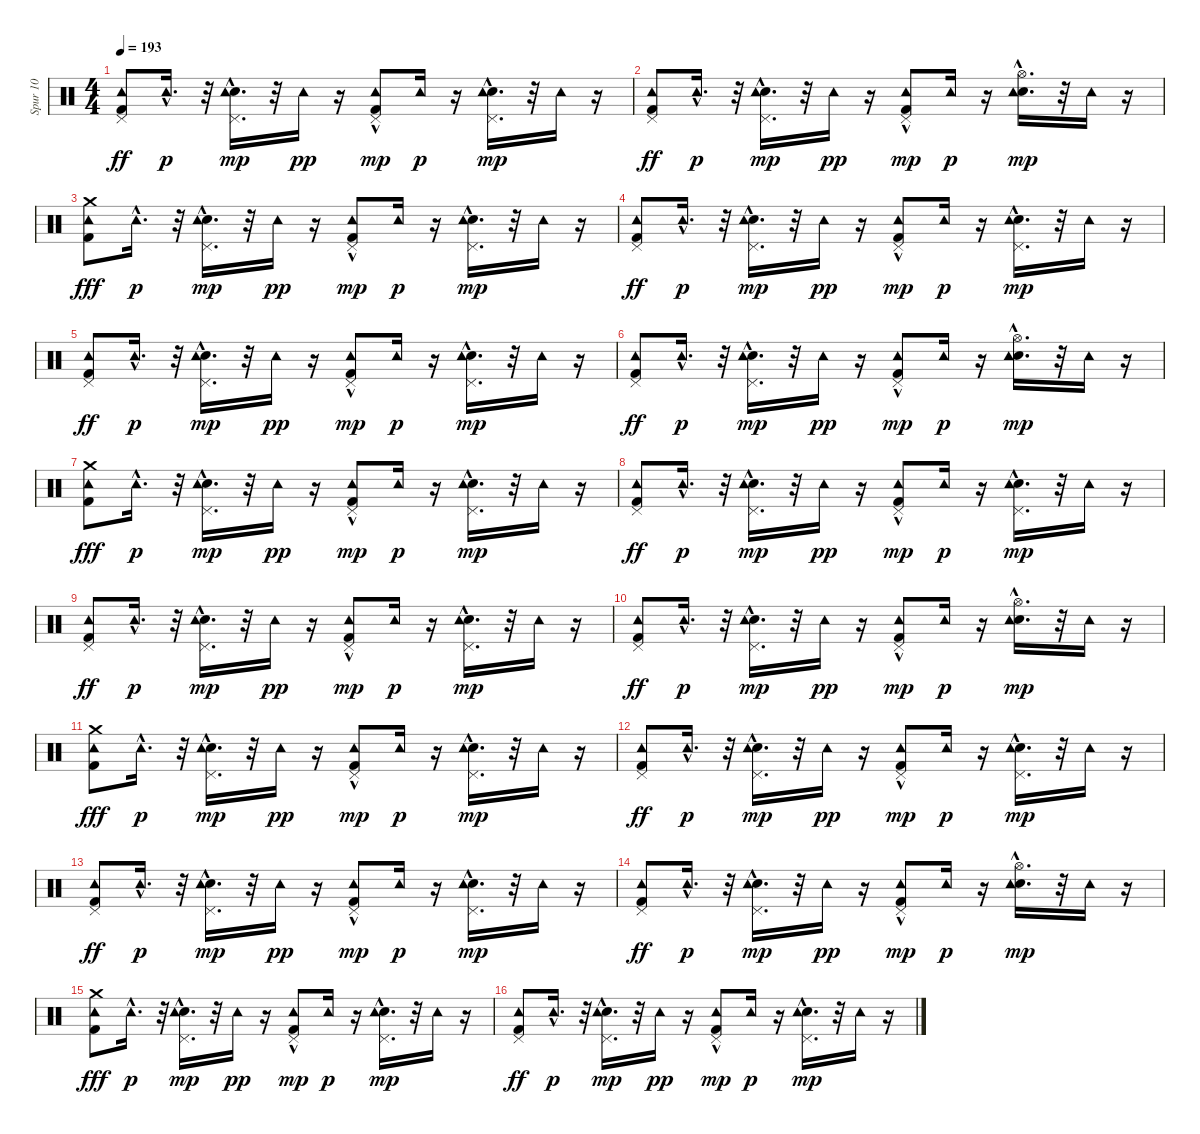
\track ("Spur 10" "Spur 10") {instrument percussion}
\staff {score}
\articulation defaults
\ts (4 4)
\tempo 193
\clef neutral
\ks c
("Tambourine (hit)" "Kick (hit) 2" "Pedal Hi-Hat (hit)").8{dy ff} "Tambourine (hit)"{hac}.16{d dy p} r.32 ("Pedal Hi-Hat (hit)" "Snare (hit) 2"{hac} "Tambourine (hit)").16{d dy mp} r.32 "Tambourine (hit)".16{dy pp} r.16 ("Kick (hit) 2" "Pedal Hi-Hat (hit)" "Tambourine (hit)"{hac}).8{dy mp} "Tambourine (hit)".16{dy p} r.16 ("Snare (hit) 2"{hac} "Pedal Hi-Hat (hit)"{hac} "Tambourine (hit)").16{d dy mp} r.32 "Tambourine (hit)".16 r.16 |
("Tambourine (hit)" "Kick (hit) 2" "Pedal Hi-Hat (hit)").8{dy ff} "Tambourine (hit)"{hac}.16{d dy p} r.32 ("Pedal Hi-Hat (hit)" "Snare (hit) 2"{hac} "Tambourine (hit)").16{d dy mp} r.32 "Tambourine (hit)".16{dy pp} r.16 ("Kick (hit) 2" "Pedal Hi-Hat (hit)" "Tambourine (hit)"{hac}).8{dy mp} "Tambourine (hit)".16{dy p} r.16 ("Snare (hit) 2"{hac} "Hi-Hat (open)"{hac} "Tambourine (hit)").16{d dy mp} r.32 "Tambourine (hit)".16 r.16 |
("Tambourine (hit)" "Kick (hit) 2" "Crash medium (hit)").8{dy fff} "Tambourine (hit)"{hac}.16{d dy p} r.32 ("Pedal Hi-Hat (hit)" "Snare (hit) 2"{hac} "Tambourine (hit)").16{d dy mp} r.32 "Tambourine (hit)".16{dy pp} r.16 ("Kick (hit) 2" "Pedal Hi-Hat (hit)" "Tambourine (hit)"{hac}).8{dy mp} "Tambourine (hit)".16{dy p} r.16 ("Snare (hit) 2"{hac} "Pedal Hi-Hat (hit)"{hac} "Tambourine (hit)").16{d dy mp} r.32 "Tambourine (hit)".16 r.16 |
("Tambourine (hit)" "Kick (hit) 2" "Pedal Hi-Hat (hit)").8{dy ff} "Tambourine (hit)"{hac}.16{d dy p} r.32 ("Pedal Hi-Hat (hit)" "Snare (hit) 2"{hac} "Tambourine (hit)").16{d dy mp} r.32 "Tambourine (hit)".16{dy pp} r.16 ("Kick (hit) 2" "Pedal Hi-Hat (hit)" "Tambourine (hit)"{hac}).8{dy mp} "Tambourine (hit)".16{dy p} r.16 ("Snare (hit) 2"{hac} "Pedal Hi-Hat (hit)"{hac} "Tambourine (hit)").16{d dy mp} r.32 "Tambourine (hit)".16 r.16 |
("Tambourine (hit)" "Kick (hit) 2" "Pedal Hi-Hat (hit)").8{dy ff} "Tambourine (hit)"{hac}.16{d dy p} r.32 ("Pedal Hi-Hat (hit)" "Snare (hit) 2"{hac} "Tambourine (hit)").16{d dy mp} r.32 "Tambourine (hit)".16{dy pp} r.16 ("Kick (hit) 2" "Pedal Hi-Hat (hit)" "Tambourine (hit)"{hac}).8{dy mp} "Tambourine (hit)".16{dy p} r.16 ("Snare (hit) 2"{hac} "Pedal Hi-Hat (hit)"{hac} "Tambourine (hit)").16{d dy mp} r.32 "Tambourine (hit)".16 r.16 |
("Tambourine (hit)" "Kick (hit) 2" "Pedal Hi-Hat (hit)").8{dy ff} "Tambourine (hit)"{hac}.16{d dy p} r.32 ("Pedal Hi-Hat (hit)" "Snare (hit) 2"{hac} "Tambourine (hit)").16{d dy mp} r.32 "Tambourine (hit)".16{dy pp} r.16 ("Kick (hit) 2" "Pedal Hi-Hat (hit)" "Tambourine (hit)"{hac}).8{dy mp} "Tambourine (hit)".16{dy p} r.16 ("Snare (hit) 2"{hac} "Hi-Hat (open)"{hac} "Tambourine (hit)").16{d dy mp} r.32 "Tambourine (hit)".16 r.16 |
("Tambourine (hit)" "Kick (hit) 2" "Crash medium (hit)").8{dy fff} "Tambourine (hit)"{hac}.16{d dy p} r.32 ("Pedal Hi-Hat (hit)" "Snare (hit) 2"{hac} "Tambourine (hit)").16{d dy mp} r.32 "Tambourine (hit)".16{dy pp} r.16 ("Kick (hit) 2" "Pedal Hi-Hat (hit)" "Tambourine (hit)"{hac}).8{dy mp} "Tambourine (hit)".16{dy p} r.16 ("Snare (hit) 2"{hac} "Pedal Hi-Hat (hit)"{hac} "Tambourine (hit)").16{d dy mp} r.32 "Tambourine (hit)".16 r.16 |
("Tambourine (hit)" "Kick (hit) 2" "Pedal Hi-Hat (hit)").8{dy ff} "Tambourine (hit)"{hac}.16{d dy p} r.32 ("Pedal Hi-Hat (hit)" "Snare (hit) 2"{hac} "Tambourine (hit)").16{d dy mp} r.32 "Tambourine (hit)".16{dy pp} r.16 ("Kick (hit) 2" "Pedal Hi-Hat (hit)" "Tambourine (hit)"{hac}).8{dy mp} "Tambourine (hit)".16{dy p} r.16 ("Snare (hit) 2"{hac} "Pedal Hi-Hat (hit)"{hac} "Tambourine (hit)").16{d dy mp} r.32 "Tambourine (hit)".16 r.16 |
("Tambourine (hit)" "Kick (hit) 2" "Pedal Hi-Hat (hit)").8{dy ff} "Tambourine (hit)"{hac}.16{d dy p} r.32 ("Pedal Hi-Hat (hit)" "Snare (hit) 2"{hac} "Tambourine (hit)").16{d dy mp} r.32 "Tambourine (hit)".16{dy pp} r.16 ("Kick (hit) 2" "Pedal Hi-Hat (hit)" "Tambourine (hit)"{hac}).8{dy mp} "Tambourine (hit)".16{dy p} r.16 ("Snare (hit) 2"{hac} "Pedal Hi-Hat (hit)"{hac} "Tambourine (hit)").16{d dy mp} r.32 "Tambourine (hit)".16 r.16 |
("Tambourine (hit)" "Kick (hit) 2" "Pedal Hi-Hat (hit)").8{dy ff} "Tambourine (hit)"{hac}.16{d dy p} r.32 ("Pedal Hi-Hat (hit)" "Snare (hit) 2"{hac} "Tambourine (hit)").16{d dy mp} r.32 "Tambourine (hit)".16{dy pp} r.16 ("Kick (hit) 2" "Pedal Hi-Hat (hit)" "Tambourine (hit)"{hac}).8{dy mp} "Tambourine (hit)".16{dy p} r.16 ("Snare (hit) 2"{hac} "Hi-Hat (open)"{hac} "Tambourine (hit)").16{d dy mp} r.32 "Tambourine (hit)".16 r.16 |
("Tambourine (hit)" "Kick (hit) 2" "Crash medium (hit)").8{dy fff} "Tambourine (hit)"{hac}.16{d dy p} r.32 ("Pedal Hi-Hat (hit)" "Snare (hit) 2"{hac} "Tambourine (hit)").16{d dy mp} r.32 "Tambourine (hit)".16{dy pp} r.16 ("Kick (hit) 2" "Pedal Hi-Hat (hit)" "Tambourine (hit)"{hac}).8{dy mp} "Tambourine (hit)".16{dy p} r.16 ("Snare (hit) 2"{hac} "Pedal Hi-Hat (hit)"{hac} "Tambourine (hit)").16{d dy mp} r.32 "Tambourine (hit)".16 r.16 |
("Tambourine (hit)" "Kick (hit) 2" "Pedal Hi-Hat (hit)").8{dy ff} "Tambourine (hit)"{hac}.16{d dy p} r.32 ("Pedal Hi-Hat (hit)" "Snare (hit) 2"{hac} "Tambourine (hit)").16{d dy mp} r.32 "Tambourine (hit)".16{dy pp} r.16 ("Kick (hit) 2" "Pedal Hi-Hat (hit)" "Tambourine (hit)"{hac}).8{dy mp} "Tambourine (hit)".16{dy p} r.16 ("Snare (hit) 2"{hac} "Pedal Hi-Hat (hit)"{hac} "Tambourine (hit)").16{d dy mp} r.32 "Tambourine (hit)".16 r.16 |
("Tambourine (hit)" "Kick (hit) 2" "Pedal Hi-Hat (hit)").8{dy ff} "Tambourine (hit)"{hac}.16{d dy p} r.32 ("Pedal Hi-Hat (hit)" "Snare (hit) 2"{hac} "Tambourine (hit)").16{d dy mp} r.32 "Tambourine (hit)".16{dy pp} r.16 ("Kick (hit) 2" "Pedal Hi-Hat (hit)" "Tambourine (hit)"{hac}).8{dy mp} "Tambourine (hit)".16{dy p} r.16 ("Snare (hit) 2"{hac} "Pedal Hi-Hat (hit)"{hac} "Tambourine (hit)").16{d dy mp} r.32 "Tambourine (hit)".16 r.16 |
("Tambourine (hit)" "Kick (hit) 2" "Pedal Hi-Hat (hit)").8{dy ff} "Tambourine (hit)"{hac}.16{d dy p} r.32 ("Pedal Hi-Hat (hit)" "Snare (hit) 2"{hac} "Tambourine (hit)").16{d dy mp} r.32 "Tambourine (hit)".16{dy pp} r.16 ("Kick (hit) 2" "Pedal Hi-Hat (hit)" "Tambourine (hit)"{hac}).8{dy mp} "Tambourine (hit)".16{dy p} r.16 ("Snare (hit) 2"{hac} "Hi-Hat (open)"{hac} "Tambourine (hit)").16{d dy mp} r.32 "Tambourine (hit)".16 r.16 |
("Tambourine (hit)" "Kick (hit) 2" "Crash medium (hit)").8{dy fff} "Tambourine (hit)"{hac}.16{d dy p} r.32 ("Pedal Hi-Hat (hit)" "Snare (hit) 2"{hac} "Tambourine (hit)").16{d dy mp} r.32 "Tambourine (hit)".16{dy pp} r.16 ("Kick (hit) 2" "Pedal Hi-Hat (hit)" "Tambourine (hit)"{hac}).8{dy mp} "Tambourine (hit)".16{dy p} r.16 ("Snare (hit) 2"{hac} "Pedal Hi-Hat (hit)"{hac} "Tambourine (hit)").16{d dy mp} r.32 "Tambourine (hit)".16 r.16 |
("Tambourine (hit)" "Kick (hit) 2" "Pedal Hi-Hat (hit)").8{dy ff} "Tambourine (hit)"{hac}.16{d dy p} r.32 ("Pedal Hi-Hat (hit)" "Snare (hit) 2"{hac} "Tambourine (hit)").16{d dy mp} r.32 "Tambourine (hit)".16{dy pp} r.16 ("Kick (hit) 2" "Pedal Hi-Hat (hit)" "Tambourine (hit)"{hac}).8{dy mp} "Tambourine (hit)".16{dy p} r.16 ("Snare (hit) 2"{hac} "Pedal Hi-Hat (hit)"{hac} "Tambourine (hit)").16{d dy mp} r.32 "Tambourine (hit)".16 r.16
